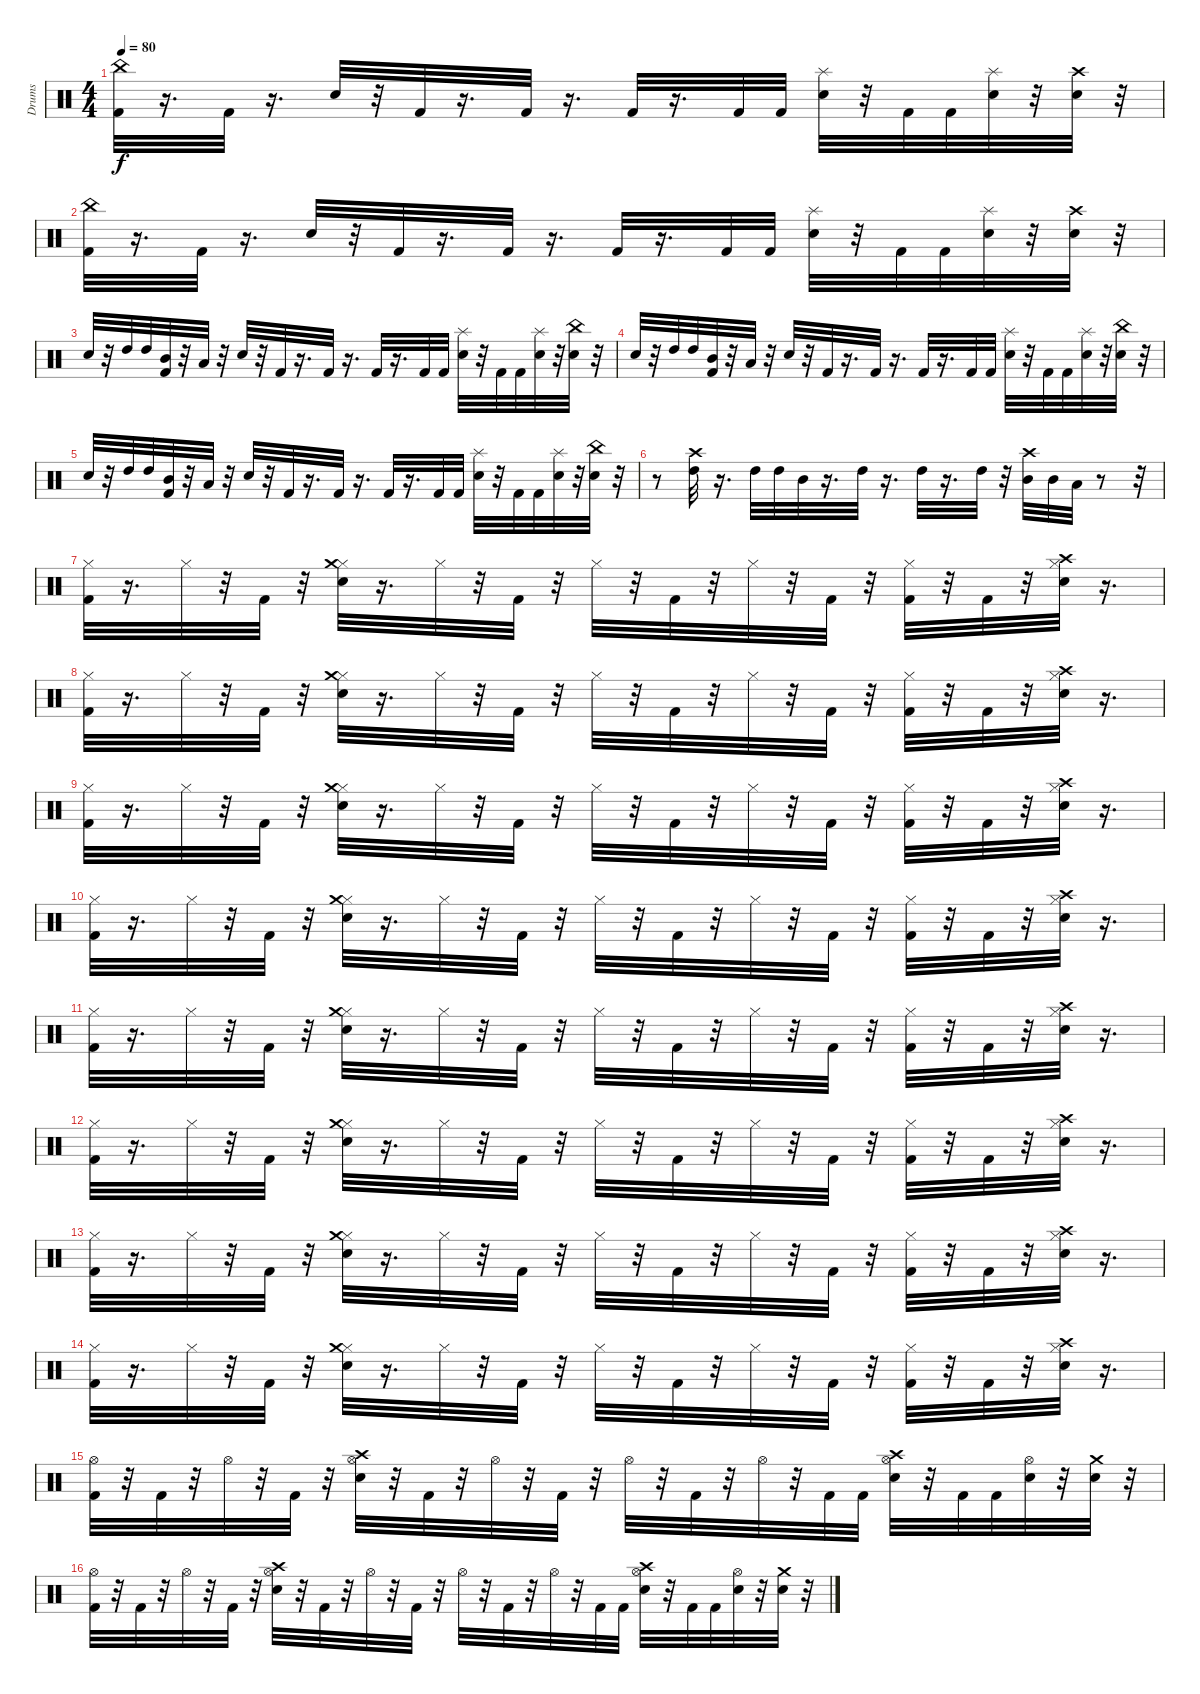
\track ("Drums" "Drums") {instrument percussion}
\staff {score}
\articulation defaults
\ts (4 4)
\tempo 80
\clef neutral
\ks c
("Kick (hit) 2" "China (hit)").32{dy f} r.16{d} "Kick (hit) 2".32 r.16{d} "Electric Snare (hit)".32 r.32 "Kick (hit) 2".32 r.16{d} "Kick (hit) 2".32 r.16{d} "Kick (hit) 2".32 r.16{d} "Kick (hit) 2".32 "Kick (hit) 2".32 ("Splash (hit)" "Electric Snare (hit)").32 r.32 "Kick (hit) 2".32 "Kick (hit) 2".32 ("Splash (hit)" "Electric Snare (hit)").32 r.32 ("Electric Snare (hit)" "Crash high (hit)").32 r.32 |
("Kick (hit) 2" "China (hit)").32 r.16{d} "Kick (hit) 2".32 r.16{d} "Electric Snare (hit)".32 r.32 "Kick (hit) 2".32 r.16{d} "Kick (hit) 2".32 r.16{d} "Kick (hit) 2".32 r.16{d} "Kick (hit) 2".32 "Kick (hit) 2".32 ("Splash (hit)" "Electric Snare (hit)").32 r.32 "Kick (hit) 2".32 "Kick (hit) 2".32 ("Splash (hit)" "Electric Snare (hit)").32 r.32 ("Electric Snare (hit)" "Crash high (hit)").32 r.32 |
"Electric Snare (hit)".32 r.32 "High Tom (hit)".32 "High Tom (hit)".32 ("Mid Tom (hit)" "Kick (hit) 2").32 r.32 "Low Tom (hit)".32 r.32 "Electric Snare (hit)".32 r.32 "Kick (hit) 2".32 r.16{d} "Kick (hit) 2".32 r.16{d} "Kick (hit) 2".32 r.16{d} "Kick (hit) 2".32 "Kick (hit) 2".32 ("Electric Snare (hit)" "Splash (hit)").32 r.32 "Kick (hit) 2".32 "Kick (hit) 2".32 ("Electric Snare (hit)" "Splash (hit)").32 r.32 ("Electric Snare (hit)" "China (hit)").32 r.32 |
"Electric Snare (hit)".32 r.32 "High Tom (hit)".32 "High Tom (hit)".32 ("Mid Tom (hit)" "Kick (hit) 2").32 r.32 "Low Tom (hit)".32 r.32 "Electric Snare (hit)".32 r.32 "Kick (hit) 2".32 r.16{d} "Kick (hit) 2".32 r.16{d} "Kick (hit) 2".32 r.16{d} "Kick (hit) 2".32 "Kick (hit) 2".32 ("Electric Snare (hit)" "Splash (hit)").32 r.32 "Kick (hit) 2".32 "Kick (hit) 2".32 ("Electric Snare (hit)" "Splash (hit)").32 r.32 ("Electric Snare (hit)" "China (hit)").32 r.32 |
"Electric Snare (hit)".32 r.32 "High Tom (hit)".32 "High Tom (hit)".32 ("Mid Tom (hit)" "Kick (hit) 2").32 r.32 "Low Tom (hit)".32 r.32 "Electric Snare (hit)".32 r.32 "Kick (hit) 2".32 r.16{d} "Kick (hit) 2".32 r.16{d} "Kick (hit) 2".32 r.16{d} "Kick (hit) 2".32 "Kick (hit) 2".32 ("Electric Snare (hit)" "Splash (hit)").32 r.32 "Kick (hit) 2".32 "Kick (hit) 2".32 ("Electric Snare (hit)" "Splash (hit)").32 r.32 ("Electric Snare (hit)" "China (hit)").32 r.32 |
r.8 ("Crash high (hit)" "High Tom (hit)").32 r.16{d} "High Tom (hit)".32 "High Tom (hit)".32 "Mid Tom (hit)".32 r.16{d} "High Tom (hit)".32 r.16{d} "High Tom (hit)".32 r.16{d} "High Tom (hit)".32 r.32 ("Crash high (hit)" "Mid Tom (hit)").32 "Mid Tom (hit)".32 "Low Tom (hit)".32 r.8 r.32 |
("Hi-Hat (closed)" "Kick (hit) 2").32 r.16{d} "Hi-Hat (closed)".32 r.32 "Kick (hit) 2".32 r.32 ("Hi-Hat (closed)" "Crash medium (hit)" "Electric Snare (hit)").32 r.16{d} "Hi-Hat (closed)".32 r.32 "Kick (hit) 2".32 r.32 "Hi-Hat (closed)".32 r.32 "Kick (hit) 2".32 r.32 "Hi-Hat (closed)".32 r.32 "Kick (hit) 2".32 r.32 ("Hi-Hat (closed)" "Kick (hit) 2").32 r.32 "Kick (hit) 2".32 r.32 ("Hi-Hat (closed)" "Crash high (hit)" "Electric Snare (hit)").32 r.16{d} |
("Hi-Hat (closed)" "Kick (hit) 2").32 r.16{d} "Hi-Hat (closed)".32 r.32 "Kick (hit) 2".32 r.32 ("Hi-Hat (closed)" "Crash medium (hit)" "Electric Snare (hit)").32 r.16{d} "Hi-Hat (closed)".32 r.32 "Kick (hit) 2".32 r.32 "Hi-Hat (closed)".32 r.32 "Kick (hit) 2".32 r.32 "Hi-Hat (closed)".32 r.32 "Kick (hit) 2".32 r.32 ("Hi-Hat (closed)" "Kick (hit) 2").32 r.32 "Kick (hit) 2".32 r.32 ("Hi-Hat (closed)" "Crash high (hit)" "Electric Snare (hit)").32 r.16{d} |
("Hi-Hat (closed)" "Kick (hit) 2").32 r.16{d} "Hi-Hat (closed)".32 r.32 "Kick (hit) 2".32 r.32 ("Hi-Hat (closed)" "Crash medium (hit)" "Electric Snare (hit)").32 r.16{d} "Hi-Hat (closed)".32 r.32 "Kick (hit) 2".32 r.32 "Hi-Hat (closed)".32 r.32 "Kick (hit) 2".32 r.32 "Hi-Hat (closed)".32 r.32 "Kick (hit) 2".32 r.32 ("Hi-Hat (closed)" "Kick (hit) 2").32 r.32 "Kick (hit) 2".32 r.32 ("Hi-Hat (closed)" "Crash high (hit)" "Electric Snare (hit)").32 r.16{d} |
("Hi-Hat (closed)" "Kick (hit) 2").32 r.16{d} "Hi-Hat (closed)".32 r.32 "Kick (hit) 2".32 r.32 ("Hi-Hat (closed)" "Crash medium (hit)" "Electric Snare (hit)").32 r.16{d} "Hi-Hat (closed)".32 r.32 "Kick (hit) 2".32 r.32 "Hi-Hat (closed)".32 r.32 "Kick (hit) 2".32 r.32 "Hi-Hat (closed)".32 r.32 "Kick (hit) 2".32 r.32 ("Hi-Hat (closed)" "Kick (hit) 2").32 r.32 "Kick (hit) 2".32 r.32 ("Hi-Hat (closed)" "Crash high (hit)" "Electric Snare (hit)").32 r.16{d} |
("Hi-Hat (closed)" "Kick (hit) 2").32 r.16{d} "Hi-Hat (closed)".32 r.32 "Kick (hit) 2".32 r.32 ("Hi-Hat (closed)" "Crash medium (hit)" "Electric Snare (hit)").32 r.16{d} "Hi-Hat (closed)".32 r.32 "Kick (hit) 2".32 r.32 "Hi-Hat (closed)".32 r.32 "Kick (hit) 2".32 r.32 "Hi-Hat (closed)".32 r.32 "Kick (hit) 2".32 r.32 ("Hi-Hat (closed)" "Kick (hit) 2").32 r.32 "Kick (hit) 2".32 r.32 ("Hi-Hat (closed)" "Crash high (hit)" "Electric Snare (hit)").32 r.16{d} |
("Hi-Hat (closed)" "Kick (hit) 2").32 r.16{d} "Hi-Hat (closed)".32 r.32 "Kick (hit) 2".32 r.32 ("Hi-Hat (closed)" "Crash medium (hit)" "Electric Snare (hit)").32 r.16{d} "Hi-Hat (closed)".32 r.32 "Kick (hit) 2".32 r.32 "Hi-Hat (closed)".32 r.32 "Kick (hit) 2".32 r.32 "Hi-Hat (closed)".32 r.32 "Kick (hit) 2".32 r.32 ("Hi-Hat (closed)" "Kick (hit) 2").32 r.32 "Kick (hit) 2".32 r.32 ("Hi-Hat (closed)" "Crash high (hit)" "Electric Snare (hit)").32 r.16{d} |
("Hi-Hat (closed)" "Kick (hit) 2").32 r.16{d} "Hi-Hat (closed)".32 r.32 "Kick (hit) 2".32 r.32 ("Hi-Hat (closed)" "Crash medium (hit)" "Electric Snare (hit)").32 r.16{d} "Hi-Hat (closed)".32 r.32 "Kick (hit) 2".32 r.32 "Hi-Hat (closed)".32 r.32 "Kick (hit) 2".32 r.32 "Hi-Hat (closed)".32 r.32 "Kick (hit) 2".32 r.32 ("Hi-Hat (closed)" "Kick (hit) 2").32 r.32 "Kick (hit) 2".32 r.32 ("Hi-Hat (closed)" "Crash high (hit)" "Electric Snare (hit)").32 r.16{d} |
("Hi-Hat (closed)" "Kick (hit) 2").32 r.16{d} "Hi-Hat (closed)".32 r.32 "Kick (hit) 2".32 r.32 ("Hi-Hat (closed)" "Crash medium (hit)" "Electric Snare (hit)").32 r.16{d} "Hi-Hat (closed)".32 r.32 "Kick (hit) 2".32 r.32 "Hi-Hat (closed)".32 r.32 "Kick (hit) 2".32 r.32 "Hi-Hat (closed)".32 r.32 "Kick (hit) 2".32 r.32 ("Hi-Hat (closed)" "Kick (hit) 2").32 r.32 "Kick (hit) 2".32 r.32 ("Hi-Hat (closed)" "Crash high (hit)" "Electric Snare (hit)").32 r.16{d} |
("Hi-Hat (open)" "Kick (hit) 2").32 r.32 "Kick (hit) 2".32 r.32 "Hi-Hat (open)".32 r.32 "Kick (hit) 2".32 r.32 ("Hi-Hat (open)" "Crash high (hit)" "Electric Snare (hit)").32 r.32 "Kick (hit) 2".32 r.32 "Hi-Hat (open)".32 r.32 "Kick (hit) 2".32 r.32 "Hi-Hat (open)".32 r.32 "Kick (hit) 2".32 r.32 "Hi-Hat (open)".32 r.32 "Kick (hit) 2".32 "Kick (hit) 2".32 ("Hi-Hat (open)" "Crash high (hit)" "Electric Snare (hit)").32 r.32 "Kick (hit) 2".32 "Kick (hit) 2".32 ("Hi-Hat (open)" "Electric Snare (hit)").32 r.32 ("Crash medium (hit)" "Electric Snare (hit)").32 r.32 |
("Hi-Hat (open)" "Kick (hit) 2").32 r.32 "Kick (hit) 2".32 r.32 "Hi-Hat (open)".32 r.32 "Kick (hit) 2".32 r.32 ("Hi-Hat (open)" "Crash high (hit)" "Electric Snare (hit)").32 r.32 "Kick (hit) 2".32 r.32 "Hi-Hat (open)".32 r.32 "Kick (hit) 2".32 r.32 "Hi-Hat (open)".32 r.32 "Kick (hit) 2".32 r.32 "Hi-Hat (open)".32 r.32 "Kick (hit) 2".32 "Kick (hit) 2".32 ("Hi-Hat (open)" "Crash high (hit)" "Electric Snare (hit)").32 r.32 "Kick (hit) 2".32 "Kick (hit) 2".32 ("Hi-Hat (open)" "Electric Snare (hit)").32 r.32 ("Crash medium (hit)" "Electric Snare (hit)").32 r.32
